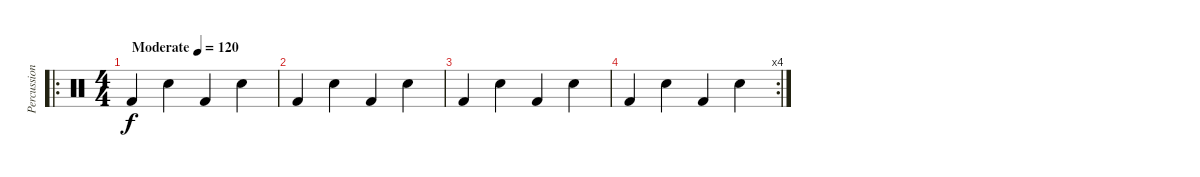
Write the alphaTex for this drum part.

\track ("Percussion" "Percussion") {instrument percussion}
\staff {score}
\articulation defaults
\ro
\ts (4 4)
\tempo (120 "Moderate")
\clef neutral
\ks c "Kick (hit) 2".4{dy f beam Up} "Snare (hit) 2".4 "Kick (hit) 2".4 "Snare (hit) 2".4
|
"Kick (hit) 2".4{beam Up} "Snare (hit) 2".4 "Kick (hit) 2".4 "Snare (hit) 2".4 |
"Kick (hit) 2".4{beam Up} "Snare (hit) 2".4 "Kick (hit) 2".4 "Snare (hit) 2".4 |
\rc 4 "Kick (hit) 2".4{beam Up} "Snare (hit) 2".4 "Kick (hit) 2".4 "Snare (hit) 2".4
